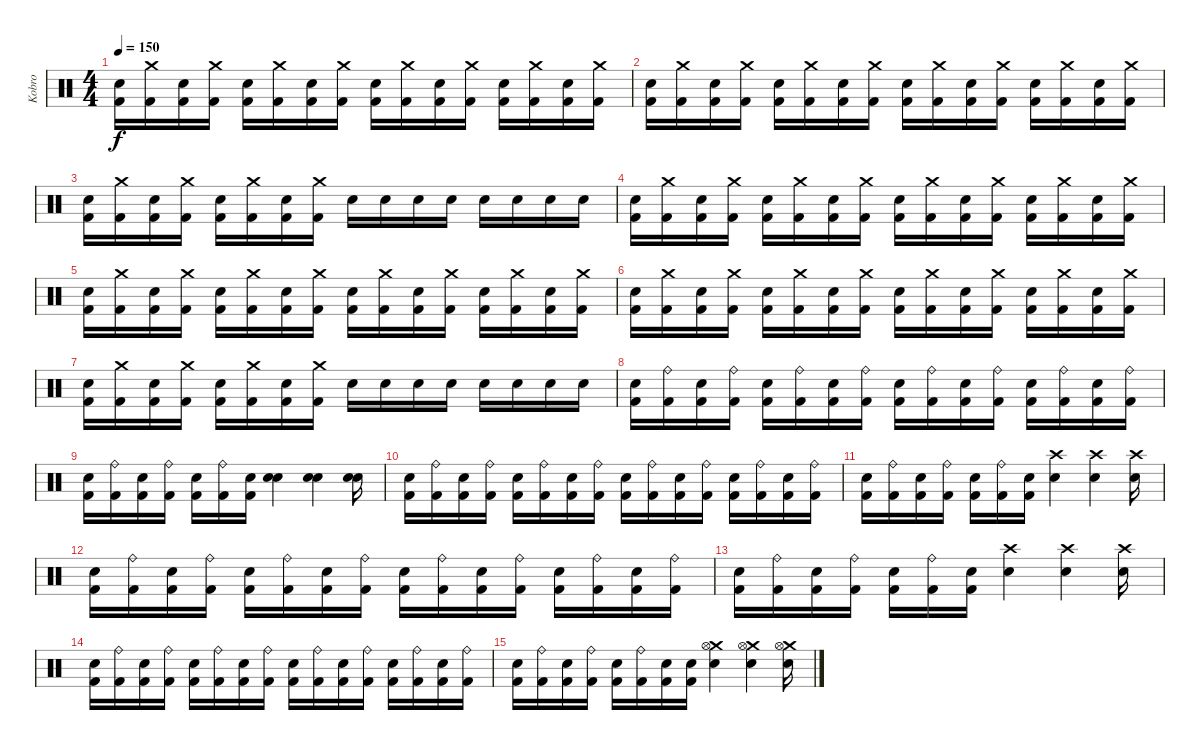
\track ("Kobro" "Kobro") {instrument percussion}
\staff {score}
\articulation defaults
\ts (4 4)
\tempo 150
\clef neutral
\ks c
("Kick (hit) 2" "Snare (hit) 2").16{dy f} ("Kick (hit) 2" "Crash medium (hit)").16 ("Kick (hit) 2" "Snare (hit) 2").16 ("Kick (hit) 2" "Crash medium (hit)").16 ("Kick (hit) 2" "Snare (hit) 2").16 ("Kick (hit) 2" "Crash medium (hit)").16 ("Kick (hit) 2" "Snare (hit) 2").16 ("Kick (hit) 2" "Crash medium (hit)").16 ("Kick (hit) 2" "Snare (hit) 2").16 ("Kick (hit) 2" "Crash medium (hit)").16 ("Kick (hit) 2" "Snare (hit) 2").16 ("Kick (hit) 2" "Crash medium (hit)").16 ("Kick (hit) 2" "Snare (hit) 2").16 ("Kick (hit) 2" "Crash medium (hit)").16 ("Kick (hit) 2" "Snare (hit) 2").16 ("Kick (hit) 2" "Crash medium (hit)").16 |
("Kick (hit) 2" "Snare (hit) 2").16 ("Kick (hit) 2" "Crash medium (hit)").16 ("Kick (hit) 2" "Snare (hit) 2").16 ("Kick (hit) 2" "Crash medium (hit)").16 ("Kick (hit) 2" "Snare (hit) 2").16 ("Kick (hit) 2" "Crash medium (hit)").16 ("Kick (hit) 2" "Snare (hit) 2").16 ("Kick (hit) 2" "Crash medium (hit)").16 ("Kick (hit) 2" "Snare (hit) 2").16 ("Kick (hit) 2" "Crash medium (hit)").16 ("Kick (hit) 2" "Snare (hit) 2").16 ("Kick (hit) 2" "Crash medium (hit)").16 ("Kick (hit) 2" "Snare (hit) 2").16 ("Kick (hit) 2" "Crash medium (hit)").16 ("Kick (hit) 2" "Snare (hit) 2").16 ("Kick (hit) 2" "Crash medium (hit)").16 |
("Kick (hit) 2" "Snare (hit) 2").16 ("Kick (hit) 2" "Crash medium (hit)").16 ("Kick (hit) 2" "Snare (hit) 2").16 ("Kick (hit) 2" "Crash medium (hit)").16 ("Kick (hit) 2" "Snare (hit) 2").16 ("Kick (hit) 2" "Crash medium (hit)").16 ("Kick (hit) 2" "Snare (hit) 2").16 ("Kick (hit) 2" "Crash medium (hit)").16 "Electric Snare (hit)".16 "Electric Snare (hit)".16 "Electric Snare (hit)".16 "Electric Snare (hit)".16 "Electric Snare (hit)".16 "Electric Snare (hit)".16 "Electric Snare (hit)".16 "Electric Snare (hit)".16 |
("Kick (hit) 2" "Snare (hit) 2").16 ("Kick (hit) 2" "Crash medium (hit)").16 ("Kick (hit) 2" "Snare (hit) 2").16 ("Kick (hit) 2" "Crash medium (hit)").16 ("Kick (hit) 2" "Snare (hit) 2").16 ("Kick (hit) 2" "Crash medium (hit)").16 ("Kick (hit) 2" "Snare (hit) 2").16 ("Kick (hit) 2" "Crash medium (hit)").16 ("Kick (hit) 2" "Snare (hit) 2").16 ("Kick (hit) 2" "Crash medium (hit)").16 ("Kick (hit) 2" "Snare (hit) 2").16 ("Kick (hit) 2" "Crash medium (hit)").16 ("Kick (hit) 2" "Snare (hit) 2").16 ("Kick (hit) 2" "Crash medium (hit)").16 ("Kick (hit) 2" "Snare (hit) 2").16 ("Kick (hit) 2" "Crash medium (hit)").16 |
("Kick (hit) 2" "Snare (hit) 2").16 ("Kick (hit) 2" "Crash medium (hit)").16 ("Kick (hit) 2" "Snare (hit) 2").16 ("Kick (hit) 2" "Crash medium (hit)").16 ("Kick (hit) 2" "Snare (hit) 2").16 ("Kick (hit) 2" "Crash medium (hit)").16 ("Kick (hit) 2" "Snare (hit) 2").16 ("Kick (hit) 2" "Crash medium (hit)").16 ("Kick (hit) 2" "Snare (hit) 2").16 ("Kick (hit) 2" "Crash medium (hit)").16 ("Kick (hit) 2" "Snare (hit) 2").16 ("Kick (hit) 2" "Crash medium (hit)").16 ("Kick (hit) 2" "Snare (hit) 2").16 ("Kick (hit) 2" "Crash medium (hit)").16 ("Kick (hit) 2" "Snare (hit) 2").16 ("Kick (hit) 2" "Crash medium (hit)").16 |
("Kick (hit) 2" "Snare (hit) 2").16 ("Kick (hit) 2" "Crash medium (hit)").16 ("Kick (hit) 2" "Snare (hit) 2").16 ("Kick (hit) 2" "Crash medium (hit)").16 ("Kick (hit) 2" "Snare (hit) 2").16 ("Kick (hit) 2" "Crash medium (hit)").16 ("Kick (hit) 2" "Snare (hit) 2").16 ("Kick (hit) 2" "Crash medium (hit)").16 ("Kick (hit) 2" "Snare (hit) 2").16 ("Kick (hit) 2" "Crash medium (hit)").16 ("Kick (hit) 2" "Snare (hit) 2").16 ("Kick (hit) 2" "Crash medium (hit)").16 ("Kick (hit) 2" "Snare (hit) 2").16 ("Kick (hit) 2" "Crash medium (hit)").16 ("Kick (hit) 2" "Snare (hit) 2").16 ("Kick (hit) 2" "Crash medium (hit)").16 |
("Kick (hit) 2" "Snare (hit) 2").16 ("Kick (hit) 2" "Crash medium (hit)").16 ("Kick (hit) 2" "Snare (hit) 2").16 ("Kick (hit) 2" "Crash medium (hit)").16 ("Kick (hit) 2" "Snare (hit) 2").16 ("Kick (hit) 2" "Crash medium (hit)").16 ("Kick (hit) 2" "Snare (hit) 2").16 ("Kick (hit) 2" "Crash medium (hit)").16 "Electric Snare (hit)".16 "Electric Snare (hit)".16 "Electric Snare (hit)".16 "Electric Snare (hit)".16 "Snare (hit) 2".16 "Snare (hit) 2".16 "Snare (hit) 2".16 "Snare (hit) 2".16 |
("Kick (hit) 2" "Electric Snare (hit)").16 ("Kick (hit) 2" "Ride (bell)").16 ("Kick (hit) 2" "Electric Snare (hit)").16 ("Kick (hit) 2" "Ride (bell)").16 ("Kick (hit) 2" "Electric Snare (hit)").16 ("Kick (hit) 2" "Ride (bell)").16 ("Kick (hit) 2" "Electric Snare (hit)").16 ("Kick (hit) 2" "Ride (bell)").16 ("Kick (hit) 2" "Electric Snare (hit)").16 ("Kick (hit) 2" "Ride (bell)").16 ("Kick (hit) 2" "Electric Snare (hit)").16 ("Kick (hit) 2" "Ride (bell)").16 ("Kick (hit) 2" "Electric Snare (hit)").16 ("Kick (hit) 2" "Ride (bell)").16 ("Kick (hit) 2" "Electric Snare (hit)").16 ("Kick (hit) 2" "Ride (bell)").16 |
("Kick (hit) 2" "Electric Snare (hit)").16 ("Kick (hit) 2" "Ride (bell)").16 ("Kick (hit) 2" "Electric Snare (hit)").16 ("Kick (hit) 2" "Ride (bell)").16 ("Kick (hit) 2" "Electric Snare (hit)").16 ("Kick (hit) 2" "Ride (bell)").16 ("Kick (hit) 2" "Electric Snare (hit)").16 ("Snare (hit) 2" "Electric Snare (hit)").4 ("Snare (hit) 2" "Electric Snare (hit)").4 ("Snare (hit) 2" "Electric Snare (hit)").16 |
("Kick (hit) 2" "Electric Snare (hit)").16 ("Kick (hit) 2" "Ride (bell)").16 ("Kick (hit) 2" "Electric Snare (hit)").16 ("Kick (hit) 2" "Ride (bell)").16 ("Kick (hit) 2" "Electric Snare (hit)").16 ("Kick (hit) 2" "Ride (bell)").16 ("Kick (hit) 2" "Electric Snare (hit)").16 ("Kick (hit) 2" "Ride (bell)").16 ("Kick (hit) 2" "Electric Snare (hit)").16 ("Kick (hit) 2" "Ride (bell)").16 ("Kick (hit) 2" "Electric Snare (hit)").16 ("Kick (hit) 2" "Ride (bell)").16 ("Kick (hit) 2" "Electric Snare (hit)").16 ("Kick (hit) 2" "Ride (bell)").16 ("Kick (hit) 2" "Electric Snare (hit)").16 ("Kick (hit) 2" "Ride (bell)").16 |
("Kick (hit) 2" "Electric Snare (hit)").16 ("Kick (hit) 2" "Ride (bell)").16 ("Kick (hit) 2" "Electric Snare (hit)").16 ("Kick (hit) 2" "Ride (bell)").16 ("Kick (hit) 2" "Electric Snare (hit)").16 ("Kick (hit) 2" "Ride (bell)").16 ("Kick (hit) 2" "Electric Snare (hit)").16 ("Snare (hit) 2" "Crash high (hit)").4 ("Snare (hit) 2" "Crash high (hit)").4 ("Snare (hit) 2" "Crash high (hit)").16 |
("Kick (hit) 2" "Electric Snare (hit)").16 ("Kick (hit) 2" "Ride (bell)").16 ("Kick (hit) 2" "Electric Snare (hit)").16 ("Kick (hit) 2" "Ride (bell)").16 ("Kick (hit) 2" "Electric Snare (hit)").16 ("Kick (hit) 2" "Ride (bell)").16 ("Kick (hit) 2" "Electric Snare (hit)").16 ("Kick (hit) 2" "Ride (bell)").16 ("Kick (hit) 2" "Electric Snare (hit)").16 ("Kick (hit) 2" "Ride (bell)").16 ("Kick (hit) 2" "Electric Snare (hit)").16 ("Kick (hit) 2" "Ride (bell)").16 ("Kick (hit) 2" "Electric Snare (hit)").16 ("Kick (hit) 2" "Ride (bell)").16 ("Kick (hit) 2" "Electric Snare (hit)").16 ("Kick (hit) 2" "Ride (bell)").16 |
("Kick (hit) 2" "Electric Snare (hit)").16 ("Kick (hit) 2" "Ride (bell)").16 ("Kick (hit) 2" "Electric Snare (hit)").16 ("Kick (hit) 2" "Ride (bell)").16 ("Kick (hit) 2" "Electric Snare (hit)").16 ("Kick (hit) 2" "Ride (bell)").16 ("Kick (hit) 2" "Electric Snare (hit)").16 ("Snare (hit) 2" "Crash high (hit)").4 ("Snare (hit) 2" "Crash high (hit)").4 ("Snare (hit) 2" "Crash high (hit)").16 |
("Kick (hit) 2" "Electric Snare (hit)").16 ("Kick (hit) 2" "Ride (bell)").16 ("Kick (hit) 2" "Electric Snare (hit)").16 ("Kick (hit) 2" "Ride (bell)").16 ("Kick (hit) 2" "Electric Snare (hit)").16 ("Kick (hit) 2" "Ride (bell)").16 ("Kick (hit) 2" "Electric Snare (hit)").16 ("Kick (hit) 2" "Ride (bell)").16 ("Kick (hit) 2" "Electric Snare (hit)").16 ("Kick (hit) 2" "Ride (bell)").16 ("Kick (hit) 2" "Electric Snare (hit)").16 ("Kick (hit) 2" "Ride (bell)").16 ("Kick (hit) 2" "Electric Snare (hit)").16 ("Kick (hit) 2" "Ride (bell)").16 ("Kick (hit) 2" "Electric Snare (hit)").16 ("Kick (hit) 2" "Ride (bell)").16 |
("Kick (hit) 2" "Electric Snare (hit)").16 ("Kick (hit) 2" "Ride (bell)").16 ("Kick (hit) 2" "Electric Snare (hit)").16 ("Kick (hit) 2" "Ride (bell)").16 ("Kick (hit) 2" "Electric Snare (hit)").16 ("Kick (hit) 2" "Ride (bell)").16 ("Kick (hit) 2" "Electric Snare (hit)").16 ("Snare (hit) 2" "Kick (hit) 2").16 ("Crash medium (hit)" "Hi-Hat (open)" "Snare (hit) 2").4 ("Crash medium (hit)" "Hi-Hat (open)" "Snare (hit) 2").4 ("Crash medium (hit)" "Hi-Hat (open)" "Snare (hit) 2").16
